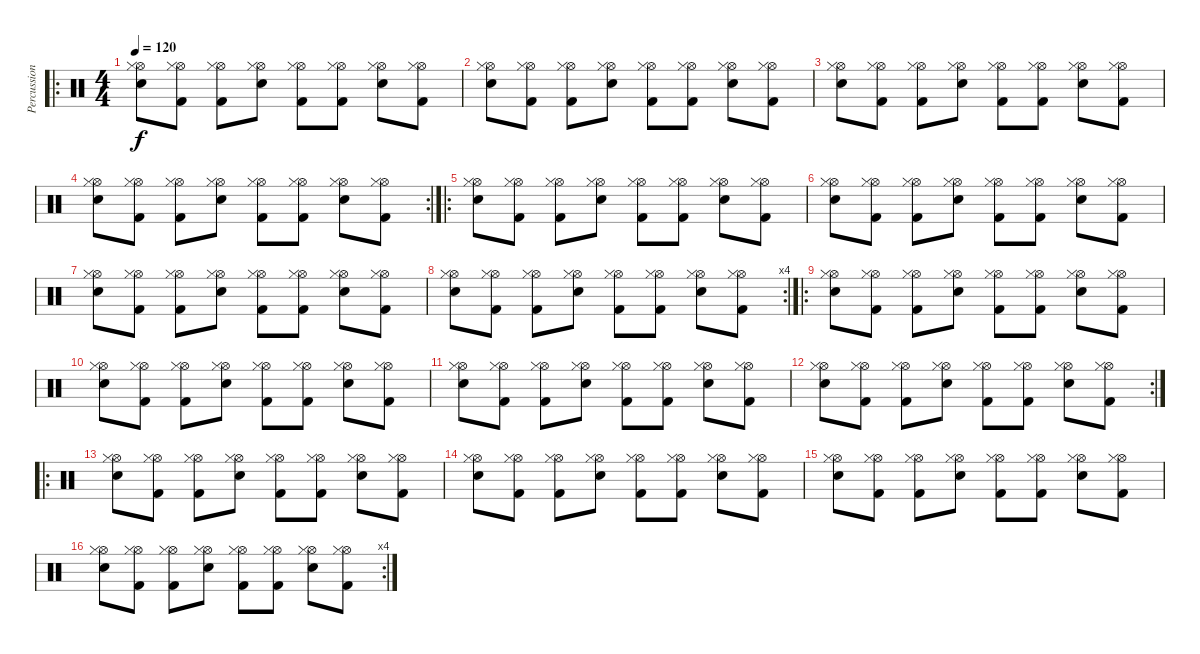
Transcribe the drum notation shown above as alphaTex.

\track ("Percussions" "Percussion") {instrument percussion}
\staff {score}
\articulation defaults
\ro
\ts (4 4)
\tempo 120
\clef neutral
\ks c
("Electric Snare (hit)" "Hi-Hat (open)" "Hi-Hat (closed)").8{dy f} ("Kick (hit) 2" "Hi-Hat (open)" "Hi-Hat (closed)").8 ("Kick (hit) 2" "Hi-Hat (open)" "Hi-Hat (closed)").8 ("Electric Snare (hit)" "Hi-Hat (open)" "Hi-Hat (closed)").8 ("Kick (hit) 2" "Hi-Hat (open)" "Hi-Hat (closed)").8 ("Kick (hit) 2" "Hi-Hat (open)" "Hi-Hat (closed)").8 ("Electric Snare (hit)" "Hi-Hat (open)" "Hi-Hat (closed)").8 ("Kick (hit) 2" "Hi-Hat (open)" "Hi-Hat (closed)").8 |
("Electric Snare (hit)" "Hi-Hat (open)" "Hi-Hat (closed)").8 ("Kick (hit) 2" "Hi-Hat (open)" "Hi-Hat (closed)").8 ("Kick (hit) 2" "Hi-Hat (open)" "Hi-Hat (closed)").8 ("Electric Snare (hit)" "Hi-Hat (open)" "Hi-Hat (closed)").8 ("Kick (hit) 2" "Hi-Hat (open)" "Hi-Hat (closed)").8 ("Kick (hit) 2" "Hi-Hat (open)" "Hi-Hat (closed)").8 ("Electric Snare (hit)" "Hi-Hat (open)" "Hi-Hat (closed)").8 ("Kick (hit) 2" "Hi-Hat (open)" "Hi-Hat (closed)").8 |
("Electric Snare (hit)" "Hi-Hat (open)" "Hi-Hat (closed)").8 ("Kick (hit) 2" "Hi-Hat (open)" "Hi-Hat (closed)").8 ("Kick (hit) 2" "Hi-Hat (open)" "Hi-Hat (closed)").8 ("Electric Snare (hit)" "Hi-Hat (open)" "Hi-Hat (closed)").8 ("Kick (hit) 2" "Hi-Hat (open)" "Hi-Hat (closed)").8 ("Kick (hit) 2" "Hi-Hat (open)" "Hi-Hat (closed)").8 ("Electric Snare (hit)" "Hi-Hat (open)" "Hi-Hat (closed)").8 ("Kick (hit) 2" "Hi-Hat (open)" "Hi-Hat (closed)").8 |
\rc 2
("Electric Snare (hit)" "Hi-Hat (open)" "Hi-Hat (closed)").8 ("Kick (hit) 2" "Hi-Hat (open)" "Hi-Hat (closed)").8 ("Kick (hit) 2" "Hi-Hat (open)" "Hi-Hat (closed)").8 ("Electric Snare (hit)" "Hi-Hat (open)" "Hi-Hat (closed)").8 ("Kick (hit) 2" "Hi-Hat (open)" "Hi-Hat (closed)").8 ("Kick (hit) 2" "Hi-Hat (open)" "Hi-Hat (closed)").8 ("Electric Snare (hit)" "Hi-Hat (open)" "Hi-Hat (closed)").8 ("Kick (hit) 2" "Hi-Hat (open)" "Hi-Hat (closed)").8 |
\ro
("Electric Snare (hit)" "Hi-Hat (open)" "Hi-Hat (closed)").8 ("Kick (hit) 2" "Hi-Hat (open)" "Hi-Hat (closed)").8 ("Kick (hit) 2" "Hi-Hat (open)" "Hi-Hat (closed)").8 ("Electric Snare (hit)" "Hi-Hat (open)" "Hi-Hat (closed)").8 ("Kick (hit) 2" "Hi-Hat (open)" "Hi-Hat (closed)").8 ("Kick (hit) 2" "Hi-Hat (open)" "Hi-Hat (closed)").8 ("Electric Snare (hit)" "Hi-Hat (open)" "Hi-Hat (closed)").8 ("Kick (hit) 2" "Hi-Hat (open)" "Hi-Hat (closed)").8 |
("Electric Snare (hit)" "Hi-Hat (open)" "Hi-Hat (closed)").8 ("Kick (hit) 2" "Hi-Hat (open)" "Hi-Hat (closed)").8 ("Kick (hit) 2" "Hi-Hat (open)" "Hi-Hat (closed)").8 ("Electric Snare (hit)" "Hi-Hat (open)" "Hi-Hat (closed)").8 ("Kick (hit) 2" "Hi-Hat (open)" "Hi-Hat (closed)").8 ("Kick (hit) 2" "Hi-Hat (open)" "Hi-Hat (closed)").8 ("Electric Snare (hit)" "Hi-Hat (open)" "Hi-Hat (closed)").8 ("Kick (hit) 2" "Hi-Hat (open)" "Hi-Hat (closed)").8 |
("Electric Snare (hit)" "Hi-Hat (open)" "Hi-Hat (closed)").8 ("Kick (hit) 2" "Hi-Hat (open)" "Hi-Hat (closed)").8 ("Kick (hit) 2" "Hi-Hat (open)" "Hi-Hat (closed)").8 ("Electric Snare (hit)" "Hi-Hat (open)" "Hi-Hat (closed)").8 ("Kick (hit) 2" "Hi-Hat (open)" "Hi-Hat (closed)").8 ("Kick (hit) 2" "Hi-Hat (open)" "Hi-Hat (closed)").8 ("Electric Snare (hit)" "Hi-Hat (open)" "Hi-Hat (closed)").8 ("Kick (hit) 2" "Hi-Hat (open)" "Hi-Hat (closed)").8 |
\rc 4
("Electric Snare (hit)" "Hi-Hat (open)" "Hi-Hat (closed)").8 ("Kick (hit) 2" "Hi-Hat (open)" "Hi-Hat (closed)").8 ("Kick (hit) 2" "Hi-Hat (open)" "Hi-Hat (closed)").8 ("Electric Snare (hit)" "Hi-Hat (open)" "Hi-Hat (closed)").8 ("Kick (hit) 2" "Hi-Hat (open)" "Hi-Hat (closed)").8 ("Kick (hit) 2" "Hi-Hat (open)" "Hi-Hat (closed)").8 ("Electric Snare (hit)" "Hi-Hat (open)" "Hi-Hat (closed)").8 ("Kick (hit) 2" "Hi-Hat (open)" "Hi-Hat (closed)").8 |
\ro
("Electric Snare (hit)" "Hi-Hat (open)" "Hi-Hat (closed)").8 ("Kick (hit) 2" "Hi-Hat (open)" "Hi-Hat (closed)").8 ("Kick (hit) 2" "Hi-Hat (open)" "Hi-Hat (closed)").8 ("Electric Snare (hit)" "Hi-Hat (open)" "Hi-Hat (closed)").8 ("Kick (hit) 2" "Hi-Hat (open)" "Hi-Hat (closed)").8 ("Kick (hit) 2" "Hi-Hat (open)" "Hi-Hat (closed)").8 ("Electric Snare (hit)" "Hi-Hat (open)" "Hi-Hat (closed)").8 ("Kick (hit) 2" "Hi-Hat (open)" "Hi-Hat (closed)").8 |
("Electric Snare (hit)" "Hi-Hat (open)" "Hi-Hat (closed)").8 ("Kick (hit) 2" "Hi-Hat (open)" "Hi-Hat (closed)").8 ("Kick (hit) 2" "Hi-Hat (open)" "Hi-Hat (closed)").8 ("Electric Snare (hit)" "Hi-Hat (open)" "Hi-Hat (closed)").8 ("Kick (hit) 2" "Hi-Hat (open)" "Hi-Hat (closed)").8 ("Kick (hit) 2" "Hi-Hat (open)" "Hi-Hat (closed)").8 ("Electric Snare (hit)" "Hi-Hat (open)" "Hi-Hat (closed)").8 ("Kick (hit) 2" "Hi-Hat (open)" "Hi-Hat (closed)").8 |
("Electric Snare (hit)" "Hi-Hat (open)" "Hi-Hat (closed)").8 ("Kick (hit) 2" "Hi-Hat (open)" "Hi-Hat (closed)").8 ("Kick (hit) 2" "Hi-Hat (open)" "Hi-Hat (closed)").8 ("Electric Snare (hit)" "Hi-Hat (open)" "Hi-Hat (closed)").8 ("Kick (hit) 2" "Hi-Hat (open)" "Hi-Hat (closed)").8 ("Kick (hit) 2" "Hi-Hat (open)" "Hi-Hat (closed)").8 ("Electric Snare (hit)" "Hi-Hat (open)" "Hi-Hat (closed)").8 ("Kick (hit) 2" "Hi-Hat (open)" "Hi-Hat (closed)").8 |
\rc 2
("Electric Snare (hit)" "Hi-Hat (open)" "Hi-Hat (closed)").8 ("Kick (hit) 2" "Hi-Hat (open)" "Hi-Hat (closed)").8 ("Kick (hit) 2" "Hi-Hat (open)" "Hi-Hat (closed)").8 ("Electric Snare (hit)" "Hi-Hat (open)" "Hi-Hat (closed)").8 ("Kick (hit) 2" "Hi-Hat (open)" "Hi-Hat (closed)").8 ("Kick (hit) 2" "Hi-Hat (open)" "Hi-Hat (closed)").8 ("Electric Snare (hit)" "Hi-Hat (open)" "Hi-Hat (closed)").8 ("Kick (hit) 2" "Hi-Hat (open)" "Hi-Hat (closed)").8 |
\ro
("Electric Snare (hit)" "Hi-Hat (open)" "Hi-Hat (closed)").8 ("Kick (hit) 2" "Hi-Hat (open)" "Hi-Hat (closed)").8 ("Kick (hit) 2" "Hi-Hat (open)" "Hi-Hat (closed)").8 ("Electric Snare (hit)" "Hi-Hat (open)" "Hi-Hat (closed)").8 ("Kick (hit) 2" "Hi-Hat (open)" "Hi-Hat (closed)").8 ("Kick (hit) 2" "Hi-Hat (open)" "Hi-Hat (closed)").8 ("Electric Snare (hit)" "Hi-Hat (open)" "Hi-Hat (closed)").8 ("Kick (hit) 2" "Hi-Hat (open)" "Hi-Hat (closed)").8 |
("Electric Snare (hit)" "Hi-Hat (open)" "Hi-Hat (closed)").8 ("Kick (hit) 2" "Hi-Hat (open)" "Hi-Hat (closed)").8 ("Kick (hit) 2" "Hi-Hat (open)" "Hi-Hat (closed)").8 ("Electric Snare (hit)" "Hi-Hat (open)" "Hi-Hat (closed)").8 ("Kick (hit) 2" "Hi-Hat (open)" "Hi-Hat (closed)").8 ("Kick (hit) 2" "Hi-Hat (open)" "Hi-Hat (closed)").8 ("Electric Snare (hit)" "Hi-Hat (open)" "Hi-Hat (closed)").8 ("Kick (hit) 2" "Hi-Hat (open)" "Hi-Hat (closed)").8 |
("Electric Snare (hit)" "Hi-Hat (open)" "Hi-Hat (closed)").8 ("Kick (hit) 2" "Hi-Hat (open)" "Hi-Hat (closed)").8 ("Kick (hit) 2" "Hi-Hat (open)" "Hi-Hat (closed)").8 ("Electric Snare (hit)" "Hi-Hat (open)" "Hi-Hat (closed)").8 ("Kick (hit) 2" "Hi-Hat (open)" "Hi-Hat (closed)").8 ("Kick (hit) 2" "Hi-Hat (open)" "Hi-Hat (closed)").8 ("Electric Snare (hit)" "Hi-Hat (open)" "Hi-Hat (closed)").8 ("Kick (hit) 2" "Hi-Hat (open)" "Hi-Hat (closed)").8 |
\rc 4
("Electric Snare (hit)" "Hi-Hat (open)" "Hi-Hat (closed)").8 ("Kick (hit) 2" "Hi-Hat (open)" "Hi-Hat (closed)").8 ("Kick (hit) 2" "Hi-Hat (open)" "Hi-Hat (closed)").8 ("Electric Snare (hit)" "Hi-Hat (open)" "Hi-Hat (closed)").8 ("Kick (hit) 2" "Hi-Hat (open)" "Hi-Hat (closed)").8 ("Kick (hit) 2" "Hi-Hat (open)" "Hi-Hat (closed)").8 ("Electric Snare (hit)" "Hi-Hat (open)" "Hi-Hat (closed)").8 ("Kick (hit) 2" "Hi-Hat (open)" "Hi-Hat (closed)").8
